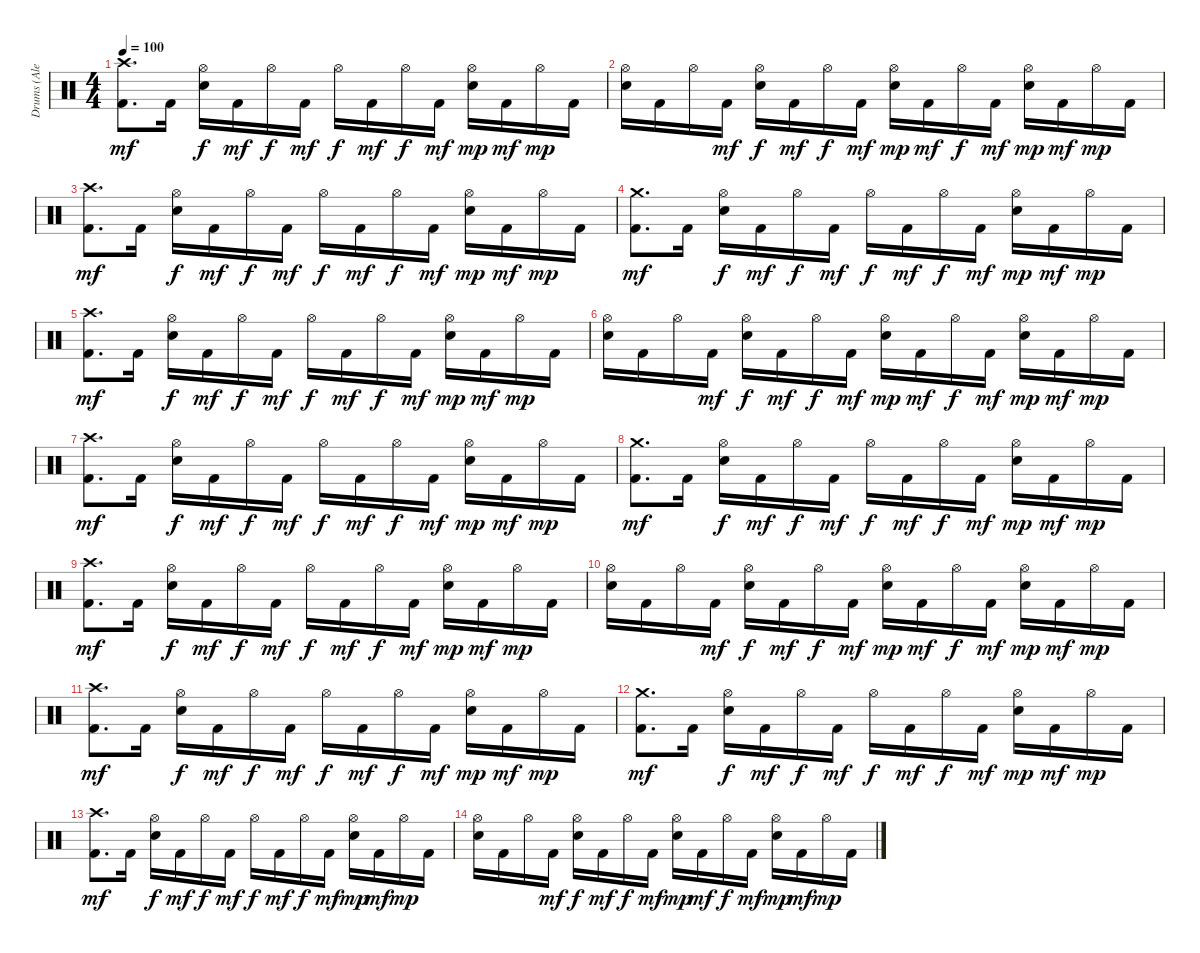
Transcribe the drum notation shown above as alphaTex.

\track ("Drums (Alex Van Halen)" "Drums (Ale") {instrument percussion}
\staff {score}
\articulation defaults
\ts (4 4)
\tempo 100
\clef neutral
\ks c
("Kick (hit) 2" "Crash high (hit)").8{d dy mf} "Kick (hit) 2".16 ("Snare (hit) 2" "Hi-Hat (open)").16{dy f} "Kick (hit) 2".16{dy mf} "Hi-Hat (open)".16{dy f} "Kick (hit) 2".16{dy mf} "Hi-Hat (open)".16{dy f} "Kick (hit) 2".16{dy mf} "Hi-Hat (open)".16{dy f} "Kick (hit) 2".16{dy mf} ("Snare (hit) 2" "Hi-Hat (open)").16{dy mp} "Kick (hit) 2".16{dy mf} "Hi-Hat (open)".16{dy mp} "Kick (hit) 2".16 |
("Snare (hit) 2" "Hi-Hat (open)").16 "Kick (hit) 2".16 "Hi-Hat (open)".16 "Kick (hit) 2".16{dy mf} ("Snare (hit) 2" "Hi-Hat (open)").16{dy f} "Kick (hit) 2".16{dy mf} "Hi-Hat (open)".16{dy f} "Kick (hit) 2".16{dy mf} ("Snare (hit) 2" "Hi-Hat (open)").16{dy mp} "Kick (hit) 2".16{dy mf} "Hi-Hat (open)".16{dy f} "Kick (hit) 2".16{dy mf} ("Snare (hit) 2" "Hi-Hat (open)").16{dy mp} "Kick (hit) 2".16{dy mf} "Hi-Hat (open)".16{dy mp} "Kick (hit) 2".16 |
("Kick (hit) 2" "Crash high (hit)").8{d dy mf} "Kick (hit) 2".16 ("Snare (hit) 2" "Hi-Hat (open)").16{dy f} "Kick (hit) 2".16{dy mf} "Hi-Hat (open)".16{dy f} "Kick (hit) 2".16{dy mf} "Hi-Hat (open)".16{dy f} "Kick (hit) 2".16{dy mf} "Hi-Hat (open)".16{dy f} "Kick (hit) 2".16{dy mf} ("Snare (hit) 2" "Hi-Hat (open)").16{dy mp} "Kick (hit) 2".16{dy mf} "Hi-Hat (open)".16{dy mp} "Kick (hit) 2".16 |
("Kick (hit) 2" "Crash medium (hit)").8{d dy mf} "Kick (hit) 2".16 ("Snare (hit) 2" "Hi-Hat (open)").16{dy f} "Kick (hit) 2".16{dy mf} "Hi-Hat (open)".16{dy f} "Kick (hit) 2".16{dy mf} "Hi-Hat (open)".16{dy f} "Kick (hit) 2".16{dy mf} "Hi-Hat (open)".16{dy f} "Kick (hit) 2".16{dy mf} ("Snare (hit) 2" "Hi-Hat (open)").16{dy mp} "Kick (hit) 2".16{dy mf} "Hi-Hat (open)".16{dy mp} "Kick (hit) 2".16 |
("Kick (hit) 2" "Crash high (hit)").8{d dy mf} "Kick (hit) 2".16 ("Snare (hit) 2" "Hi-Hat (open)").16{dy f} "Kick (hit) 2".16{dy mf} "Hi-Hat (open)".16{dy f} "Kick (hit) 2".16{dy mf} "Hi-Hat (open)".16{dy f} "Kick (hit) 2".16{dy mf} "Hi-Hat (open)".16{dy f} "Kick (hit) 2".16{dy mf} ("Snare (hit) 2" "Hi-Hat (open)").16{dy mp} "Kick (hit) 2".16{dy mf} "Hi-Hat (open)".16{dy mp} "Kick (hit) 2".16 |
("Snare (hit) 2" "Hi-Hat (open)").16 "Kick (hit) 2".16 "Hi-Hat (open)".16 "Kick (hit) 2".16{dy mf} ("Snare (hit) 2" "Hi-Hat (open)").16{dy f} "Kick (hit) 2".16{dy mf} "Hi-Hat (open)".16{dy f} "Kick (hit) 2".16{dy mf} ("Snare (hit) 2" "Hi-Hat (open)").16{dy mp} "Kick (hit) 2".16{dy mf} "Hi-Hat (open)".16{dy f} "Kick (hit) 2".16{dy mf} ("Snare (hit) 2" "Hi-Hat (open)").16{dy mp} "Kick (hit) 2".16{dy mf} "Hi-Hat (open)".16{dy mp} "Kick (hit) 2".16 |
("Kick (hit) 2" "Crash high (hit)").8{d dy mf} "Kick (hit) 2".16 ("Snare (hit) 2" "Hi-Hat (open)").16{dy f} "Kick (hit) 2".16{dy mf} "Hi-Hat (open)".16{dy f} "Kick (hit) 2".16{dy mf} "Hi-Hat (open)".16{dy f} "Kick (hit) 2".16{dy mf} "Hi-Hat (open)".16{dy f} "Kick (hit) 2".16{dy mf} ("Snare (hit) 2" "Hi-Hat (open)").16{dy mp} "Kick (hit) 2".16{dy mf} "Hi-Hat (open)".16{dy mp} "Kick (hit) 2".16 |
("Kick (hit) 2" "Crash medium (hit)").8{d dy mf} "Kick (hit) 2".16 ("Snare (hit) 2" "Hi-Hat (open)").16{dy f} "Kick (hit) 2".16{dy mf} "Hi-Hat (open)".16{dy f} "Kick (hit) 2".16{dy mf} "Hi-Hat (open)".16{dy f} "Kick (hit) 2".16{dy mf} "Hi-Hat (open)".16{dy f} "Kick (hit) 2".16{dy mf} ("Snare (hit) 2" "Hi-Hat (open)").16{dy mp} "Kick (hit) 2".16{dy mf} "Hi-Hat (open)".16{dy mp} "Kick (hit) 2".16 |
("Kick (hit) 2" "Crash high (hit)").8{d dy mf} "Kick (hit) 2".16 ("Snare (hit) 2" "Hi-Hat (open)").16{dy f} "Kick (hit) 2".16{dy mf} "Hi-Hat (open)".16{dy f} "Kick (hit) 2".16{dy mf} "Hi-Hat (open)".16{dy f} "Kick (hit) 2".16{dy mf} "Hi-Hat (open)".16{dy f} "Kick (hit) 2".16{dy mf} ("Snare (hit) 2" "Hi-Hat (open)").16{dy mp} "Kick (hit) 2".16{dy mf} "Hi-Hat (open)".16{dy mp} "Kick (hit) 2".16 |
("Snare (hit) 2" "Hi-Hat (open)").16 "Kick (hit) 2".16 "Hi-Hat (open)".16 "Kick (hit) 2".16{dy mf} ("Snare (hit) 2" "Hi-Hat (open)").16{dy f} "Kick (hit) 2".16{dy mf} "Hi-Hat (open)".16{dy f} "Kick (hit) 2".16{dy mf} ("Snare (hit) 2" "Hi-Hat (open)").16{dy mp} "Kick (hit) 2".16{dy mf} "Hi-Hat (open)".16{dy f} "Kick (hit) 2".16{dy mf} ("Snare (hit) 2" "Hi-Hat (open)").16{dy mp} "Kick (hit) 2".16{dy mf} "Hi-Hat (open)".16{dy mp} "Kick (hit) 2".16 |
("Kick (hit) 2" "Crash high (hit)").8{d dy mf} "Kick (hit) 2".16 ("Snare (hit) 2" "Hi-Hat (open)").16{dy f} "Kick (hit) 2".16{dy mf} "Hi-Hat (open)".16{dy f} "Kick (hit) 2".16{dy mf} "Hi-Hat (open)".16{dy f} "Kick (hit) 2".16{dy mf} "Hi-Hat (open)".16{dy f} "Kick (hit) 2".16{dy mf} ("Snare (hit) 2" "Hi-Hat (open)").16{dy mp} "Kick (hit) 2".16{dy mf} "Hi-Hat (open)".16{dy mp} "Kick (hit) 2".16 |
("Kick (hit) 2" "Crash medium (hit)").8{d dy mf} "Kick (hit) 2".16 ("Snare (hit) 2" "Hi-Hat (open)").16{dy f} "Kick (hit) 2".16{dy mf} "Hi-Hat (open)".16{dy f} "Kick (hit) 2".16{dy mf} "Hi-Hat (open)".16{dy f} "Kick (hit) 2".16{dy mf} "Hi-Hat (open)".16{dy f} "Kick (hit) 2".16{dy mf} ("Snare (hit) 2" "Hi-Hat (open)").16{dy mp} "Kick (hit) 2".16{dy mf} "Hi-Hat (open)".16{dy mp} "Kick (hit) 2".16 |
("Kick (hit) 2" "Crash high (hit)").8{d dy mf} "Kick (hit) 2".16 ("Snare (hit) 2" "Hi-Hat (open)").16{dy f} "Kick (hit) 2".16{dy mf} "Hi-Hat (open)".16{dy f} "Kick (hit) 2".16{dy mf} "Hi-Hat (open)".16{dy f} "Kick (hit) 2".16{dy mf} "Hi-Hat (open)".16{dy f} "Kick (hit) 2".16{dy mf} ("Snare (hit) 2" "Hi-Hat (open)").16{dy mp} "Kick (hit) 2".16{dy mf} "Hi-Hat (open)".16{dy mp} "Kick (hit) 2".16 |
("Snare (hit) 2" "Hi-Hat (open)").16 "Kick (hit) 2".16 "Hi-Hat (open)".16 "Kick (hit) 2".16{dy mf} ("Snare (hit) 2" "Hi-Hat (open)").16{dy f} "Kick (hit) 2".16{dy mf} "Hi-Hat (open)".16{dy f} "Kick (hit) 2".16{dy mf} ("Snare (hit) 2" "Hi-Hat (open)").16{dy mp} "Kick (hit) 2".16{dy mf} "Hi-Hat (open)".16{dy f} "Kick (hit) 2".16{dy mf} ("Snare (hit) 2" "Hi-Hat (open)").16{dy mp} "Kick (hit) 2".16{dy mf} "Hi-Hat (open)".16{dy mp} "Kick (hit) 2".16
